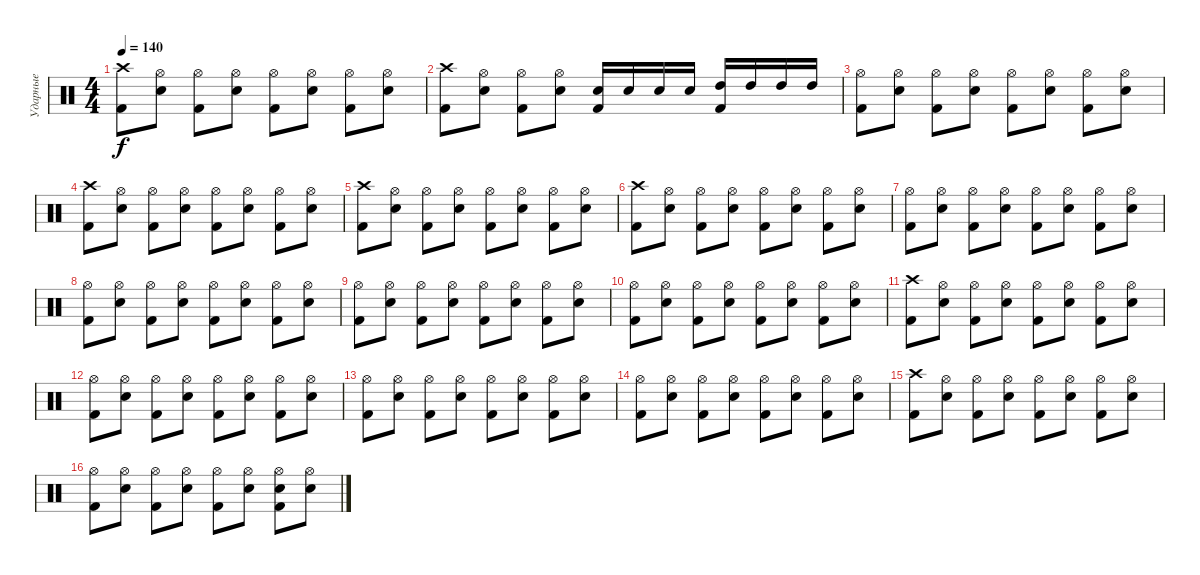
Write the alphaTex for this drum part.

\track ("Ударные" "Ударные") {instrument percussion}
\staff {score}
\articulation defaults
\ts (4 4)
\tempo 140
\clef neutral
\ks c
("Crash high (hit)" "Kick (hit) 2").8{dy f} ("Hi-Hat (open)" "Electric Snare (hit)").8 ("Hi-Hat (open)" "Kick (hit) 2").8 ("Hi-Hat (open)" "Electric Snare (hit)").8 ("Hi-Hat (open)" "Kick (hit) 2").8 ("Hi-Hat (open)" "Electric Snare (hit)").8 ("Hi-Hat (open)" "Kick (hit) 2").8 ("Hi-Hat (open)" "Electric Snare (hit)").8 |
("Crash high (hit)" "Kick (hit) 2").8 ("Hi-Hat (open)" "Electric Snare (hit)").8 ("Hi-Hat (open)" "Kick (hit) 2").8 ("Hi-Hat (open)" "Electric Snare (hit)").8 ("Electric Snare (hit)" "Kick (hit) 2").16 "Electric Snare (hit)".16 "Electric Snare (hit)".16 "Electric Snare (hit)".16 ("High Tom (hit)" "Kick (hit) 2").16 "High Tom (hit)".16 "High Tom (hit)".16 "High Tom (hit)".16 |
("Hi-Hat (open)" "Kick (hit) 2").8 ("Hi-Hat (open)" "Electric Snare (hit)").8 ("Hi-Hat (open)" "Kick (hit) 2").8 ("Hi-Hat (open)" "Electric Snare (hit)").8 ("Hi-Hat (open)" "Kick (hit) 2").8 ("Hi-Hat (open)" "Electric Snare (hit)").8 ("Hi-Hat (open)" "Kick (hit) 2").8 ("Hi-Hat (open)" "Electric Snare (hit)").8 |
("Crash high (hit)" "Kick (hit) 2").8 ("Hi-Hat (open)" "Electric Snare (hit)").8 ("Hi-Hat (open)" "Kick (hit) 2").8 ("Hi-Hat (open)" "Electric Snare (hit)").8 ("Hi-Hat (open)" "Kick (hit) 2").8 ("Hi-Hat (open)" "Electric Snare (hit)").8 ("Hi-Hat (open)" "Kick (hit) 2").8 ("Hi-Hat (open)" "Electric Snare (hit)").8 |
("Crash high (hit)" "Kick (hit) 2").8 ("Hi-Hat (open)" "Electric Snare (hit)").8 ("Hi-Hat (open)" "Kick (hit) 2").8 ("Hi-Hat (open)" "Electric Snare (hit)").8 ("Hi-Hat (open)" "Kick (hit) 2").8 ("Hi-Hat (open)" "Electric Snare (hit)").8 ("Hi-Hat (open)" "Kick (hit) 2").8 ("Hi-Hat (open)" "Electric Snare (hit)").8 |
("Crash high (hit)" "Kick (hit) 2").8 ("Hi-Hat (open)" "Electric Snare (hit)").8 ("Hi-Hat (open)" "Kick (hit) 2").8 ("Hi-Hat (open)" "Electric Snare (hit)").8 ("Hi-Hat (open)" "Kick (hit) 2").8 ("Hi-Hat (open)" "Electric Snare (hit)").8 ("Hi-Hat (open)" "Kick (hit) 2").8 ("Hi-Hat (open)" "Electric Snare (hit)").8 |
("Hi-Hat (open)" "Kick (hit) 2").8 ("Hi-Hat (open)" "Electric Snare (hit)").8 ("Hi-Hat (open)" "Kick (hit) 2").8 ("Hi-Hat (open)" "Electric Snare (hit)").8 ("Hi-Hat (open)" "Kick (hit) 2").8 ("Hi-Hat (open)" "Electric Snare (hit)").8 ("Hi-Hat (open)" "Kick (hit) 2").8 ("Hi-Hat (open)" "Electric Snare (hit)").8 |
("Hi-Hat (open)" "Kick (hit) 2").8 ("Hi-Hat (open)" "Electric Snare (hit)").8 ("Hi-Hat (open)" "Kick (hit) 2").8 ("Hi-Hat (open)" "Electric Snare (hit)").8 ("Hi-Hat (open)" "Kick (hit) 2").8 ("Hi-Hat (open)" "Electric Snare (hit)").8 ("Hi-Hat (open)" "Kick (hit) 2").8 ("Hi-Hat (open)" "Electric Snare (hit)").8 |
("Hi-Hat (open)" "Kick (hit) 2").8 ("Hi-Hat (open)" "Electric Snare (hit)").8 ("Hi-Hat (open)" "Kick (hit) 2").8 ("Hi-Hat (open)" "Electric Snare (hit)").8 ("Hi-Hat (open)" "Kick (hit) 2").8 ("Hi-Hat (open)" "Electric Snare (hit)").8 ("Hi-Hat (open)" "Kick (hit) 2").8 ("Hi-Hat (open)" "Electric Snare (hit)").8 |
("Hi-Hat (open)" "Kick (hit) 2").8 ("Hi-Hat (open)" "Electric Snare (hit)").8 ("Hi-Hat (open)" "Kick (hit) 2").8 ("Hi-Hat (open)" "Electric Snare (hit)").8 ("Hi-Hat (open)" "Kick (hit) 2").8 ("Hi-Hat (open)" "Electric Snare (hit)").8 ("Hi-Hat (open)" "Kick (hit) 2").8 ("Hi-Hat (open)" "Electric Snare (hit)").8 |
("Crash high (hit)" "Kick (hit) 2").8 ("Hi-Hat (open)" "Electric Snare (hit)").8 ("Hi-Hat (open)" "Kick (hit) 2").8 ("Hi-Hat (open)" "Electric Snare (hit)").8 ("Hi-Hat (open)" "Kick (hit) 2").8 ("Hi-Hat (open)" "Electric Snare (hit)").8 ("Hi-Hat (open)" "Kick (hit) 2").8 ("Hi-Hat (open)" "Electric Snare (hit)").8 |
("Hi-Hat (open)" "Kick (hit) 2").8 ("Hi-Hat (open)" "Electric Snare (hit)").8 ("Hi-Hat (open)" "Kick (hit) 2").8 ("Hi-Hat (open)" "Electric Snare (hit)").8 ("Hi-Hat (open)" "Kick (hit) 2").8 ("Hi-Hat (open)" "Electric Snare (hit)").8 ("Hi-Hat (open)" "Kick (hit) 2").8 ("Hi-Hat (open)" "Electric Snare (hit)").8 |
("Hi-Hat (open)" "Kick (hit) 2").8 ("Hi-Hat (open)" "Electric Snare (hit)").8 ("Hi-Hat (open)" "Kick (hit) 2").8 ("Hi-Hat (open)" "Electric Snare (hit)").8 ("Hi-Hat (open)" "Kick (hit) 2").8 ("Hi-Hat (open)" "Electric Snare (hit)").8 ("Hi-Hat (open)" "Kick (hit) 2").8 ("Hi-Hat (open)" "Electric Snare (hit)").8 |
("Hi-Hat (open)" "Kick (hit) 2").8 ("Hi-Hat (open)" "Electric Snare (hit)").8 ("Hi-Hat (open)" "Kick (hit) 2").8 ("Hi-Hat (open)" "Electric Snare (hit)").8 ("Hi-Hat (open)" "Kick (hit) 2").8 ("Hi-Hat (open)" "Electric Snare (hit)").8 ("Hi-Hat (open)" "Kick (hit) 2").8 ("Hi-Hat (open)" "Electric Snare (hit)").8 |
("Crash high (hit)" "Kick (hit) 2").8 ("Hi-Hat (open)" "Electric Snare (hit)").8 ("Hi-Hat (open)" "Kick (hit) 2").8 ("Hi-Hat (open)" "Electric Snare (hit)").8 ("Hi-Hat (open)" "Kick (hit) 2").8 ("Hi-Hat (open)" "Electric Snare (hit)").8 ("Hi-Hat (open)" "Kick (hit) 2").8 ("Hi-Hat (open)" "Electric Snare (hit)").8 |
("Hi-Hat (open)" "Kick (hit) 2").8 ("Hi-Hat (open)" "Electric Snare (hit)").8 ("Hi-Hat (open)" "Kick (hit) 2").8 ("Hi-Hat (open)" "Electric Snare (hit)").8 ("Hi-Hat (open)" "Kick (hit) 2").8 ("Hi-Hat (open)" "Electric Snare (hit)").8 ("Hi-Hat (open)" "Electric Snare (hit)" "Kick (hit) 2").8 ("Hi-Hat (open)" "Electric Snare (hit)").8
